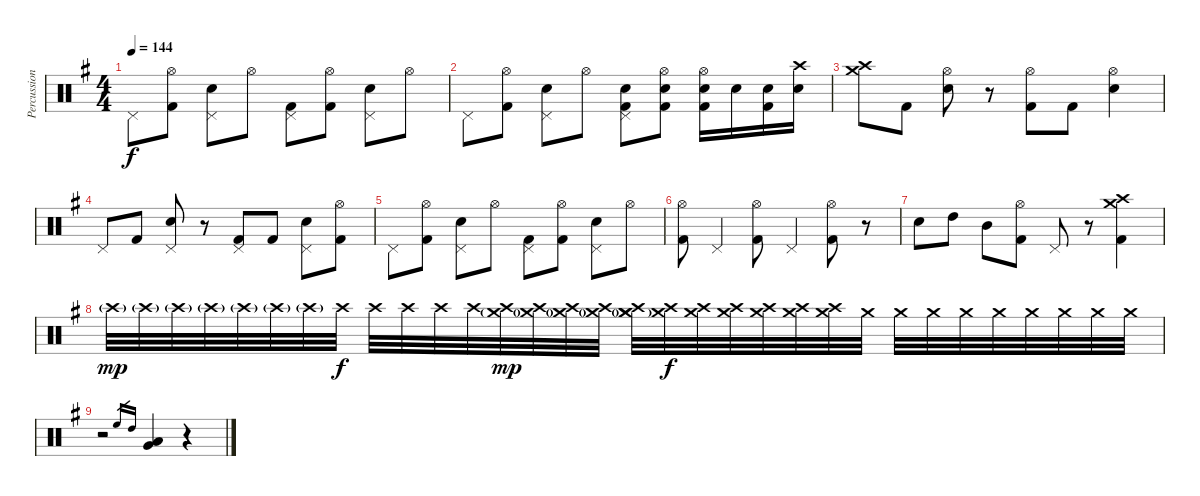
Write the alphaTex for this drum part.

\track ("Percussion" "Percussion") {instrument percussion}
\staff {score}
\articulation defaults
\ts (4 4)
\tempo 144
\clef neutral
\ks g "Pedal Hi-Hat (hit)".8{dy f}
("Hi-Hat (open)" "Kick (hit) 2").8 ("Electric Snare (hit)" "Pedal Hi-Hat (hit)").8 "Hi-Hat (open)".8 ("Pedal Hi-Hat (hit)" "Kick (hit) 2").8 ("Hi-Hat (open)" "Kick (hit) 2").8 ("Electric Snare (hit)" "Pedal Hi-Hat (hit)").8 "Hi-Hat (open)".8 |
"Pedal Hi-Hat (hit)".8 ("Hi-Hat (open)" "Kick (hit) 2").8 ("Electric Snare (hit)" "Pedal Hi-Hat (hit)").8 "Hi-Hat (open)".8 ("Pedal Hi-Hat (hit)" "Electric Snare (hit)" "Kick (hit) 2").8 ("Hi-Hat (open)" "Electric Snare (hit)" "Kick (hit) 2").8 ("Hi-Hat (open)" "Electric Snare (hit)" "Kick (hit) 2").16 "Electric Snare (hit)".16 ("Electric Snare (hit)" "Kick (hit) 2").16 ("Crash high (hit)" "Electric Snare (hit)").16 |
("Crash high (hit)" "Crash medium (hit)").8 "Kick (hit) 2".8 ("Electric Snare (hit)" "Hi-Hat (open)").8 r.8 ("Hi-Hat (open)" "Kick (hit) 2").8 "Kick (hit) 2".8 ("Electric Snare (hit)" "Hi-Hat (open)").4 |
"Pedal Hi-Hat (hit)".8 "Kick (hit) 2".8 ("Electric Snare (hit)" "Pedal Hi-Hat (hit)").8 r.8 ("Pedal Hi-Hat (hit)" "Kick (hit) 2").8 "Kick (hit) 2".8 ("Electric Snare (hit)" "Pedal Hi-Hat (hit)").8 ("Hi-Hat (open)" "Kick (hit) 2").8 |
"Pedal Hi-Hat (hit)".8 ("Hi-Hat (open)" "Kick (hit) 2").8 ("Electric Snare (hit)" "Pedal Hi-Hat (hit)").8 "Hi-Hat (open)".8 ("Pedal Hi-Hat (hit)" "Kick (hit) 2").8 ("Hi-Hat (open)" "Kick (hit) 2").8 ("Electric Snare (hit)" "Pedal Hi-Hat (hit)").8 "Hi-Hat (open)".8 |
("Hi-Hat (open)" "Kick (hit) 2").8 "Pedal Hi-Hat (hit)".4 ("Hi-Hat (open)" "Kick (hit) 2").8 "Pedal Hi-Hat (hit)".4 ("Hi-Hat (open)" "Kick (hit) 2").8 r.8 |
"Electric Snare (hit)".8 "High Tom (hit)".8 "Mid Tom (hit)".8 ("Hi-Hat (open)" "Kick (hit) 2").8 "Pedal Hi-Hat (hit)".8 r.8 ("Crash high (hit)" "Crash medium (hit)" "Kick (hit) 2").4 |
"Crash high (hit)"{g}.32{dy mp} "Crash high (hit)"{g}.32 "Crash high (hit)"{g}.32 "Crash high (hit)"{g}.32 "Crash high (hit)"{g}.32 "Crash high (hit)"{g}.32 "Crash high (hit)"{g}.32 "Crash high (hit)".32{dy f} "Crash high (hit)".32 "Crash high (hit)".32 "Crash high (hit)".32 "Crash high (hit)".32 ("Crash medium (hit)"{g} "Crash high (hit)").32{dy mp} ("Crash medium (hit)"{g} "Crash high (hit)").32 ("Crash medium (hit)"{g} "Crash high (hit)").32 ("Crash medium (hit)"{g} "Crash high (hit)").32 ("Crash medium (hit)"{g} "Crash medium (hit)" "Crash high (hit)").32 ("Crash medium (hit)" "Crash high (hit)").32{dy f} ("Crash medium (hit)" "Crash high (hit)").32 ("Crash medium (hit)" "Crash high (hit)").32 ("Crash medium (hit)" "Crash high (hit)").32 ("Crash medium (hit)" "Crash high (hit)").32 ("Crash medium (hit)" "Crash high (hit)").32 "Crash medium (hit)".32 "Crash medium (hit)".32 "Crash medium (hit)".32 "Crash medium (hit)".32 "Crash medium (hit)".32 "Crash medium (hit)".32 "Crash medium (hit)".32 "Crash medium (hit)".32 "Crash medium (hit)".32 |
r.2 "High Floor Tom (hit)".16{gr} "High Tom (hit)".16{gr} ("Very Low Tom (hit)" "Low Floor Tom (hit)").4 r.4
